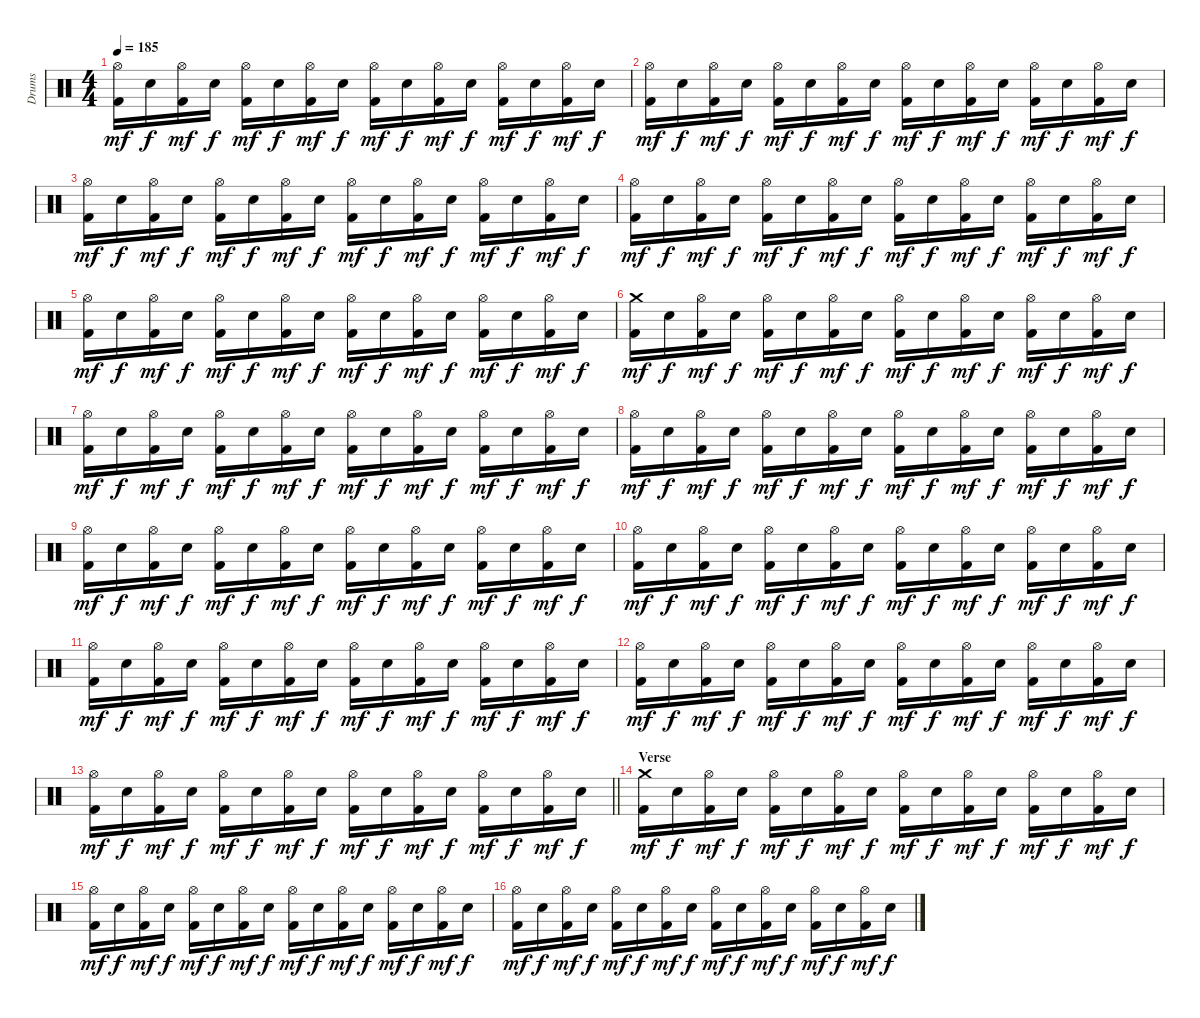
\track ("Drums" "Drums") {instrument percussion}
\staff {score}
\articulation defaults
\ts (4 4)
\tempo 185
\clef neutral
\ks c
("Hi-Hat (open)" "Kick (hit) 2").16{dy mf} "Electric Snare (hit)".16{dy f} ("Hi-Hat (open)" "Kick (hit) 2").16{dy mf} "Electric Snare (hit)".16{dy f} ("Hi-Hat (open)" "Kick (hit) 2").16{dy mf} "Electric Snare (hit)".16{dy f} ("Hi-Hat (open)" "Kick (hit) 2").16{dy mf} "Electric Snare (hit)".16{dy f} ("Hi-Hat (open)" "Kick (hit) 2").16{dy mf} "Electric Snare (hit)".16{dy f} ("Hi-Hat (open)" "Kick (hit) 2").16{dy mf} "Electric Snare (hit)".16{dy f} ("Hi-Hat (open)" "Kick (hit) 2").16{dy mf} "Electric Snare (hit)".16{dy f} ("Hi-Hat (open)" "Kick (hit) 2").16{dy mf} "Electric Snare (hit)".16{dy f} |
("Hi-Hat (open)" "Kick (hit) 2").16{dy mf} "Electric Snare (hit)".16{dy f} ("Hi-Hat (open)" "Kick (hit) 2").16{dy mf} "Electric Snare (hit)".16{dy f} ("Hi-Hat (open)" "Kick (hit) 2").16{dy mf} "Electric Snare (hit)".16{dy f} ("Hi-Hat (open)" "Kick (hit) 2").16{dy mf} "Electric Snare (hit)".16{dy f} ("Hi-Hat (open)" "Kick (hit) 2").16{dy mf} "Electric Snare (hit)".16{dy f} ("Hi-Hat (open)" "Kick (hit) 2").16{dy mf} "Electric Snare (hit)".16{dy f} ("Hi-Hat (open)" "Kick (hit) 2").16{dy mf} "Electric Snare (hit)".16{dy f} ("Hi-Hat (open)" "Kick (hit) 2").16{dy mf} "Electric Snare (hit)".16{dy f} |
("Hi-Hat (open)" "Kick (hit) 2").16{dy mf} "Electric Snare (hit)".16{dy f} ("Hi-Hat (open)" "Kick (hit) 2").16{dy mf} "Electric Snare (hit)".16{dy f} ("Hi-Hat (open)" "Kick (hit) 2").16{dy mf} "Electric Snare (hit)".16{dy f} ("Hi-Hat (open)" "Kick (hit) 2").16{dy mf} "Electric Snare (hit)".16{dy f} ("Hi-Hat (open)" "Kick (hit) 2").16{dy mf} "Electric Snare (hit)".16{dy f} ("Hi-Hat (open)" "Kick (hit) 2").16{dy mf} "Electric Snare (hit)".16{dy f} ("Hi-Hat (open)" "Kick (hit) 2").16{dy mf} "Electric Snare (hit)".16{dy f} ("Hi-Hat (open)" "Kick (hit) 2").16{dy mf} "Electric Snare (hit)".16{dy f} |
("Hi-Hat (open)" "Kick (hit) 2").16{dy mf} "Electric Snare (hit)".16{dy f} ("Hi-Hat (open)" "Kick (hit) 2").16{dy mf} "Electric Snare (hit)".16{dy f} ("Hi-Hat (open)" "Kick (hit) 2").16{dy mf} "Electric Snare (hit)".16{dy f} ("Hi-Hat (open)" "Kick (hit) 2").16{dy mf} "Electric Snare (hit)".16{dy f} ("Hi-Hat (open)" "Kick (hit) 2").16{dy mf} "Electric Snare (hit)".16{dy f} ("Hi-Hat (open)" "Kick (hit) 2").16{dy mf} "Electric Snare (hit)".16{dy f} ("Hi-Hat (open)" "Kick (hit) 2").16{dy mf} "Electric Snare (hit)".16{dy f} ("Hi-Hat (open)" "Kick (hit) 2").16{dy mf} "Electric Snare (hit)".16{dy f} |
("Hi-Hat (open)" "Kick (hit) 2").16{dy mf} "Electric Snare (hit)".16{dy f} ("Hi-Hat (open)" "Kick (hit) 2").16{dy mf} "Electric Snare (hit)".16{dy f} ("Hi-Hat (open)" "Kick (hit) 2").16{dy mf} "Electric Snare (hit)".16{dy f} ("Hi-Hat (open)" "Kick (hit) 2").16{dy mf} "Electric Snare (hit)".16{dy f} ("Hi-Hat (open)" "Kick (hit) 2").16{dy mf} "Electric Snare (hit)".16{dy f} ("Hi-Hat (open)" "Kick (hit) 2").16{dy mf} "Electric Snare (hit)".16{dy f} ("Hi-Hat (open)" "Kick (hit) 2").16{dy mf} "Electric Snare (hit)".16{dy f} ("Hi-Hat (open)" "Kick (hit) 2").16{dy mf} "Electric Snare (hit)".16{dy f} |
("Crash medium (hit)" "Kick (hit) 2").16{dy mf} "Electric Snare (hit)".16{dy f} ("Hi-Hat (open)" "Kick (hit) 2").16{dy mf} "Electric Snare (hit)".16{dy f} ("Hi-Hat (open)" "Kick (hit) 2").16{dy mf} "Electric Snare (hit)".16{dy f} ("Hi-Hat (open)" "Kick (hit) 2").16{dy mf} "Electric Snare (hit)".16{dy f} ("Hi-Hat (open)" "Kick (hit) 2").16{dy mf} "Electric Snare (hit)".16{dy f} ("Hi-Hat (open)" "Kick (hit) 2").16{dy mf} "Electric Snare (hit)".16{dy f} ("Hi-Hat (open)" "Kick (hit) 2").16{dy mf} "Electric Snare (hit)".16{dy f} ("Hi-Hat (open)" "Kick (hit) 2").16{dy mf} "Electric Snare (hit)".16{dy f} |
("Hi-Hat (open)" "Kick (hit) 2").16{dy mf} "Electric Snare (hit)".16{dy f} ("Hi-Hat (open)" "Kick (hit) 2").16{dy mf} "Electric Snare (hit)".16{dy f} ("Hi-Hat (open)" "Kick (hit) 2").16{dy mf} "Electric Snare (hit)".16{dy f} ("Hi-Hat (open)" "Kick (hit) 2").16{dy mf} "Electric Snare (hit)".16{dy f} ("Hi-Hat (open)" "Kick (hit) 2").16{dy mf} "Electric Snare (hit)".16{dy f} ("Hi-Hat (open)" "Kick (hit) 2").16{dy mf} "Electric Snare (hit)".16{dy f} ("Hi-Hat (open)" "Kick (hit) 2").16{dy mf} "Electric Snare (hit)".16{dy f} ("Hi-Hat (open)" "Kick (hit) 2").16{dy mf} "Electric Snare (hit)".16{dy f} |
("Hi-Hat (open)" "Kick (hit) 2").16{dy mf} "Electric Snare (hit)".16{dy f} ("Hi-Hat (open)" "Kick (hit) 2").16{dy mf} "Electric Snare (hit)".16{dy f} ("Hi-Hat (open)" "Kick (hit) 2").16{dy mf} "Electric Snare (hit)".16{dy f} ("Hi-Hat (open)" "Kick (hit) 2").16{dy mf} "Electric Snare (hit)".16{dy f} ("Hi-Hat (open)" "Kick (hit) 2").16{dy mf} "Electric Snare (hit)".16{dy f} ("Hi-Hat (open)" "Kick (hit) 2").16{dy mf} "Electric Snare (hit)".16{dy f} ("Hi-Hat (open)" "Kick (hit) 2").16{dy mf} "Electric Snare (hit)".16{dy f} ("Hi-Hat (open)" "Kick (hit) 2").16{dy mf} "Electric Snare (hit)".16{dy f} |
("Hi-Hat (open)" "Kick (hit) 2").16{dy mf} "Electric Snare (hit)".16{dy f} ("Hi-Hat (open)" "Kick (hit) 2").16{dy mf} "Electric Snare (hit)".16{dy f} ("Hi-Hat (open)" "Kick (hit) 2").16{dy mf} "Electric Snare (hit)".16{dy f} ("Hi-Hat (open)" "Kick (hit) 2").16{dy mf} "Electric Snare (hit)".16{dy f} ("Hi-Hat (open)" "Kick (hit) 2").16{dy mf} "Electric Snare (hit)".16{dy f} ("Hi-Hat (open)" "Kick (hit) 2").16{dy mf} "Electric Snare (hit)".16{dy f} ("Hi-Hat (open)" "Kick (hit) 2").16{dy mf} "Electric Snare (hit)".16{dy f} ("Hi-Hat (open)" "Kick (hit) 2").16{dy mf} "Electric Snare (hit)".16{dy f} |
("Hi-Hat (open)" "Kick (hit) 2").16{dy mf} "Electric Snare (hit)".16{dy f} ("Hi-Hat (open)" "Kick (hit) 2").16{dy mf} "Electric Snare (hit)".16{dy f} ("Hi-Hat (open)" "Kick (hit) 2").16{dy mf} "Electric Snare (hit)".16{dy f} ("Hi-Hat (open)" "Kick (hit) 2").16{dy mf} "Electric Snare (hit)".16{dy f} ("Hi-Hat (open)" "Kick (hit) 2").16{dy mf} "Electric Snare (hit)".16{dy f} ("Hi-Hat (open)" "Kick (hit) 2").16{dy mf} "Electric Snare (hit)".16{dy f} ("Hi-Hat (open)" "Kick (hit) 2").16{dy mf} "Electric Snare (hit)".16{dy f} ("Hi-Hat (open)" "Kick (hit) 2").16{dy mf} "Electric Snare (hit)".16{dy f} |
("Hi-Hat (open)" "Kick (hit) 2").16{dy mf} "Electric Snare (hit)".16{dy f} ("Hi-Hat (open)" "Kick (hit) 2").16{dy mf} "Electric Snare (hit)".16{dy f} ("Hi-Hat (open)" "Kick (hit) 2").16{dy mf} "Electric Snare (hit)".16{dy f} ("Hi-Hat (open)" "Kick (hit) 2").16{dy mf} "Electric Snare (hit)".16{dy f} ("Hi-Hat (open)" "Kick (hit) 2").16{dy mf} "Electric Snare (hit)".16{dy f} ("Hi-Hat (open)" "Kick (hit) 2").16{dy mf} "Electric Snare (hit)".16{dy f} ("Hi-Hat (open)" "Kick (hit) 2").16{dy mf} "Electric Snare (hit)".16{dy f} ("Hi-Hat (open)" "Kick (hit) 2").16{dy mf} "Electric Snare (hit)".16{dy f} |
("Hi-Hat (open)" "Kick (hit) 2").16{dy mf} "Electric Snare (hit)".16{dy f} ("Hi-Hat (open)" "Kick (hit) 2").16{dy mf} "Electric Snare (hit)".16{dy f} ("Hi-Hat (open)" "Kick (hit) 2").16{dy mf} "Electric Snare (hit)".16{dy f} ("Hi-Hat (open)" "Kick (hit) 2").16{dy mf} "Electric Snare (hit)".16{dy f} ("Hi-Hat (open)" "Kick (hit) 2").16{dy mf} "Electric Snare (hit)".16{dy f} ("Hi-Hat (open)" "Kick (hit) 2").16{dy mf} "Electric Snare (hit)".16{dy f} ("Hi-Hat (open)" "Kick (hit) 2").16{dy mf} "Electric Snare (hit)".16{dy f} ("Hi-Hat (open)" "Kick (hit) 2").16{dy mf} "Electric Snare (hit)".16{dy f} |
\barLineRight lightlight
("Hi-Hat (open)" "Kick (hit) 2").16{dy mf} "Electric Snare (hit)".16{dy f} ("Hi-Hat (open)" "Kick (hit) 2").16{dy mf} "Electric Snare (hit)".16{dy f} ("Hi-Hat (open)" "Kick (hit) 2").16{dy mf} "Electric Snare (hit)".16{dy f} ("Hi-Hat (open)" "Kick (hit) 2").16{dy mf} "Electric Snare (hit)".16{dy f} ("Hi-Hat (open)" "Kick (hit) 2").16{dy mf} "Electric Snare (hit)".16{dy f} ("Hi-Hat (open)" "Kick (hit) 2").16{dy mf} "Electric Snare (hit)".16{dy f} ("Hi-Hat (open)" "Kick (hit) 2").16{dy mf} "Electric Snare (hit)".16{dy f} ("Hi-Hat (open)" "Kick (hit) 2").16{dy mf} "Electric Snare (hit)".16{dy f} |
\section ("" "Verse")
("Crash medium (hit)" "Kick (hit) 2").16{dy mf} "Electric Snare (hit)".16{dy f} ("Hi-Hat (open)" "Kick (hit) 2").16{dy mf} "Electric Snare (hit)".16{dy f} ("Hi-Hat (open)" "Kick (hit) 2").16{dy mf} "Electric Snare (hit)".16{dy f} ("Hi-Hat (open)" "Kick (hit) 2").16{dy mf} "Electric Snare (hit)".16{dy f} ("Hi-Hat (open)" "Kick (hit) 2").16{dy mf} "Electric Snare (hit)".16{dy f} ("Hi-Hat (open)" "Kick (hit) 2").16{dy mf} "Electric Snare (hit)".16{dy f} ("Hi-Hat (open)" "Kick (hit) 2").16{dy mf} "Electric Snare (hit)".16{dy f} ("Hi-Hat (open)" "Kick (hit) 2").16{dy mf} "Electric Snare (hit)".16{dy f} |
("Hi-Hat (open)" "Kick (hit) 2").16{dy mf} "Electric Snare (hit)".16{dy f} ("Hi-Hat (open)" "Kick (hit) 2").16{dy mf} "Electric Snare (hit)".16{dy f} ("Hi-Hat (open)" "Kick (hit) 2").16{dy mf} "Electric Snare (hit)".16{dy f} ("Hi-Hat (open)" "Kick (hit) 2").16{dy mf} "Electric Snare (hit)".16{dy f} ("Hi-Hat (open)" "Kick (hit) 2").16{dy mf} "Electric Snare (hit)".16{dy f} ("Hi-Hat (open)" "Kick (hit) 2").16{dy mf} "Electric Snare (hit)".16{dy f} ("Hi-Hat (open)" "Kick (hit) 2").16{dy mf} "Electric Snare (hit)".16{dy f} ("Hi-Hat (open)" "Kick (hit) 2").16{dy mf} "Electric Snare (hit)".16{dy f} |
("Hi-Hat (open)" "Kick (hit) 2").16{dy mf} "Electric Snare (hit)".16{dy f} ("Hi-Hat (open)" "Kick (hit) 2").16{dy mf} "Electric Snare (hit)".16{dy f} ("Hi-Hat (open)" "Kick (hit) 2").16{dy mf} "Electric Snare (hit)".16{dy f} ("Hi-Hat (open)" "Kick (hit) 2").16{dy mf} "Electric Snare (hit)".16{dy f} ("Hi-Hat (open)" "Kick (hit) 2").16{dy mf} "Electric Snare (hit)".16{dy f} ("Hi-Hat (open)" "Kick (hit) 2").16{dy mf} "Electric Snare (hit)".16{dy f} ("Hi-Hat (open)" "Kick (hit) 2").16{dy mf} "Electric Snare (hit)".16{dy f} ("Hi-Hat (open)" "Kick (hit) 2").16{dy mf} "Electric Snare (hit)".16{dy f}
